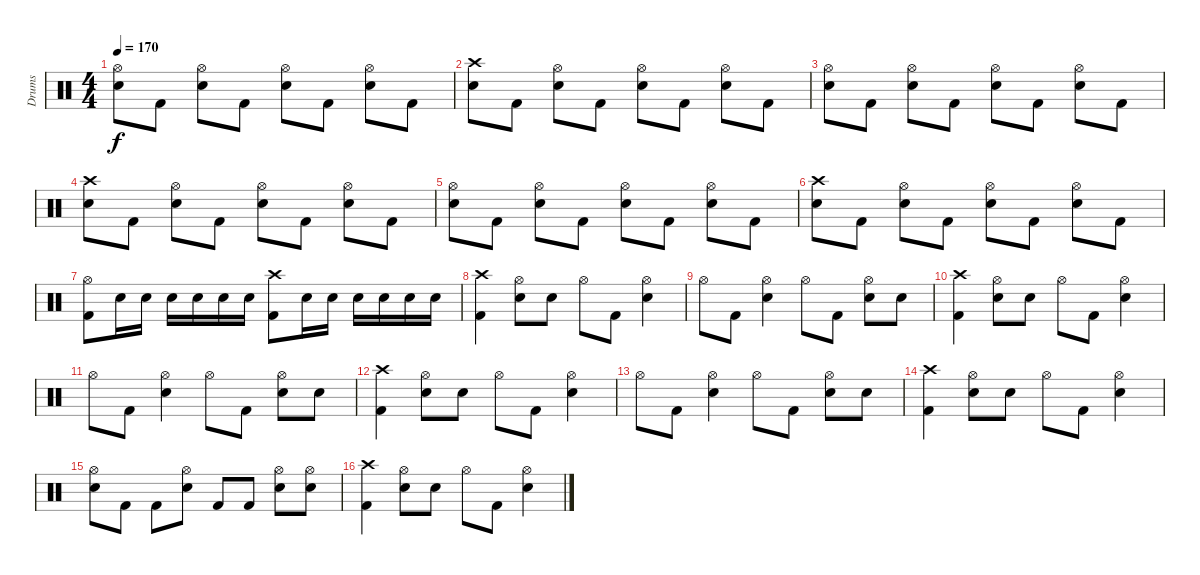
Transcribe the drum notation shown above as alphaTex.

\track ("Drums" "Drums") {instrument percussion}
\staff {score}
\articulation defaults
\ts (4 4)
\tempo 170
\clef neutral
\ks c
("Hi-Hat (open)" "Electric Snare (hit)").8{dy f} "Kick (hit) 2".8 ("Hi-Hat (open)" "Electric Snare (hit)").8 "Kick (hit) 2".8 ("Hi-Hat (open)" "Electric Snare (hit)").8 "Kick (hit) 2".8 ("Hi-Hat (open)" "Electric Snare (hit)").8 "Kick (hit) 2".8 |
("Crash high (hit)" "Electric Snare (hit)").8 "Kick (hit) 2".8 ("Hi-Hat (open)" "Electric Snare (hit)").8 "Kick (hit) 2".8 ("Hi-Hat (open)" "Electric Snare (hit)").8 "Kick (hit) 2".8 ("Hi-Hat (open)" "Electric Snare (hit)").8 "Kick (hit) 2".8 |
("Hi-Hat (open)" "Electric Snare (hit)").8 "Kick (hit) 2".8 ("Hi-Hat (open)" "Electric Snare (hit)").8 "Kick (hit) 2".8 ("Hi-Hat (open)" "Electric Snare (hit)").8 "Kick (hit) 2".8 ("Hi-Hat (open)" "Electric Snare (hit)").8 "Kick (hit) 2".8 |
("Crash high (hit)" "Electric Snare (hit)").8 "Kick (hit) 2".8 ("Hi-Hat (open)" "Electric Snare (hit)").8 "Kick (hit) 2".8 ("Hi-Hat (open)" "Electric Snare (hit)").8 "Kick (hit) 2".8 ("Hi-Hat (open)" "Electric Snare (hit)").8 "Kick (hit) 2".8 |
("Hi-Hat (open)" "Electric Snare (hit)").8 "Kick (hit) 2".8 ("Hi-Hat (open)" "Electric Snare (hit)").8 "Kick (hit) 2".8 ("Hi-Hat (open)" "Electric Snare (hit)").8 "Kick (hit) 2".8 ("Hi-Hat (open)" "Electric Snare (hit)").8 "Kick (hit) 2".8 |
("Crash high (hit)" "Electric Snare (hit)").8 "Kick (hit) 2".8 ("Hi-Hat (open)" "Electric Snare (hit)").8 "Kick (hit) 2".8 ("Hi-Hat (open)" "Electric Snare (hit)").8 "Kick (hit) 2".8 ("Hi-Hat (open)" "Electric Snare (hit)").8 "Kick (hit) 2".8 |
("Hi-Hat (open)" "Kick (hit) 2").8 "Electric Snare (hit)".16 "Electric Snare (hit)".16 "Electric Snare (hit)".16 "Electric Snare (hit)".16 "Electric Snare (hit)".16 "Electric Snare (hit)".16 ("Crash high (hit)" "Kick (hit) 2").8 "Electric Snare (hit)".16 "Electric Snare (hit)".16 "Electric Snare (hit)".16 "Electric Snare (hit)".16 "Electric Snare (hit)".16 "Electric Snare (hit)".16 |
("Crash high (hit)" "Kick (hit) 2").4 ("Hi-Hat (open)" "Electric Snare (hit)").8 "Electric Snare (hit)".8 "Hi-Hat (open)".8 "Kick (hit) 2".8 ("Hi-Hat (open)" "Electric Snare (hit)").4 |
"Hi-Hat (open)".8 "Kick (hit) 2".8 ("Hi-Hat (open)" "Electric Snare (hit)").4 "Hi-Hat (open)".8 "Kick (hit) 2".8 ("Hi-Hat (open)" "Electric Snare (hit)").8 "Electric Snare (hit)".8 |
("Crash high (hit)" "Kick (hit) 2").4 ("Hi-Hat (open)" "Electric Snare (hit)").8 "Electric Snare (hit)".8 "Hi-Hat (open)".8 "Kick (hit) 2".8 ("Hi-Hat (open)" "Electric Snare (hit)").4 |
"Hi-Hat (open)".8 "Kick (hit) 2".8 ("Hi-Hat (open)" "Electric Snare (hit)").4 "Hi-Hat (open)".8 "Kick (hit) 2".8 ("Hi-Hat (open)" "Electric Snare (hit)").8 "Electric Snare (hit)".8 |
("Crash high (hit)" "Kick (hit) 2").4 ("Hi-Hat (open)" "Electric Snare (hit)").8 "Electric Snare (hit)".8 "Hi-Hat (open)".8 "Kick (hit) 2".8 ("Hi-Hat (open)" "Electric Snare (hit)").4 |
"Hi-Hat (open)".8 "Kick (hit) 2".8 ("Hi-Hat (open)" "Electric Snare (hit)").4 "Hi-Hat (open)".8 "Kick (hit) 2".8 ("Hi-Hat (open)" "Electric Snare (hit)").8 "Electric Snare (hit)".8 |
("Crash high (hit)" "Kick (hit) 2").4 ("Hi-Hat (open)" "Electric Snare (hit)").8 "Electric Snare (hit)".8 "Hi-Hat (open)".8 "Kick (hit) 2".8 ("Hi-Hat (open)" "Electric Snare (hit)").4 |
("Hi-Hat (open)" "Electric Snare (hit)").8 "Kick (hit) 2".8 "Kick (hit) 2".8 ("Hi-Hat (open)" "Electric Snare (hit)").8 "Kick (hit) 2".8 "Kick (hit) 2".8 ("Hi-Hat (open)" "Electric Snare (hit)").8 ("Hi-Hat (open)" "Electric Snare (hit)").8 |
("Crash high (hit)" "Kick (hit) 2").4 ("Hi-Hat (open)" "Electric Snare (hit)").8 "Electric Snare (hit)".8 "Hi-Hat (open)".8 "Kick (hit) 2".8 ("Hi-Hat (open)" "Electric Snare (hit)").4
